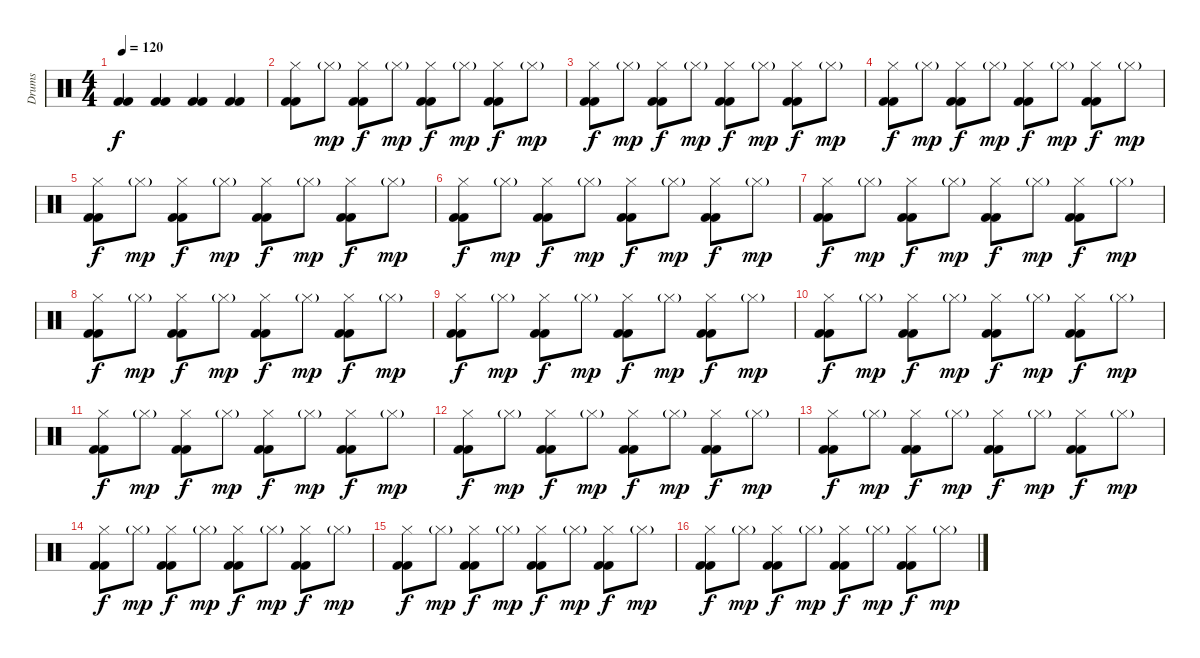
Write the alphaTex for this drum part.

\track ("Drums" "Drums") {instrument percussion}
\staff {score}
\articulation defaults
\ts (4 4)
\tempo 120
\clef neutral
\ks c
("Kick (hit) 2" "Kick (hit) 2").4{dy f} ("Kick (hit) 2" "Kick (hit) 2").4 ("Kick (hit) 2" "Kick (hit) 2").4 ("Kick (hit) 2" "Kick (hit) 2").4 |
("Hi-Hat (closed)" "Kick (hit) 2" "Kick (hit) 2").8 "Hi-Hat (closed)"{g}.8{dy mp} ("Hi-Hat (closed)" "Kick (hit) 2" "Kick (hit) 2").8{dy f} "Hi-Hat (closed)"{g}.8{dy mp} ("Hi-Hat (closed)" "Kick (hit) 2" "Kick (hit) 2").8{dy f} "Hi-Hat (closed)"{g}.8{dy mp} ("Hi-Hat (closed)" "Kick (hit) 2" "Kick (hit) 2").8{dy f} "Hi-Hat (closed)"{g}.8{dy mp} |
("Hi-Hat (closed)" "Kick (hit) 2" "Kick (hit) 2").8{dy f} "Hi-Hat (closed)"{g}.8{dy mp} ("Hi-Hat (closed)" "Kick (hit) 2" "Kick (hit) 2").8{dy f} "Hi-Hat (closed)"{g}.8{dy mp} ("Hi-Hat (closed)" "Kick (hit) 2" "Kick (hit) 2").8{dy f} "Hi-Hat (closed)"{g}.8{dy mp} ("Hi-Hat (closed)" "Kick (hit) 2" "Kick (hit) 2").8{dy f} "Hi-Hat (closed)"{g}.8{dy mp} |
("Hi-Hat (closed)" "Kick (hit) 2" "Kick (hit) 2").8{dy f} "Hi-Hat (closed)"{g}.8{dy mp} ("Hi-Hat (closed)" "Kick (hit) 2" "Kick (hit) 2").8{dy f} "Hi-Hat (closed)"{g}.8{dy mp} ("Hi-Hat (closed)" "Kick (hit) 2" "Kick (hit) 2").8{dy f} "Hi-Hat (closed)"{g}.8{dy mp} ("Hi-Hat (closed)" "Kick (hit) 2" "Kick (hit) 2").8{dy f} "Hi-Hat (closed)"{g}.8{dy mp} |
("Hi-Hat (closed)" "Kick (hit) 2" "Kick (hit) 2").8{dy f} "Hi-Hat (closed)"{g}.8{dy mp} ("Hi-Hat (closed)" "Kick (hit) 2" "Kick (hit) 2").8{dy f} "Hi-Hat (closed)"{g}.8{dy mp} ("Hi-Hat (closed)" "Kick (hit) 2" "Kick (hit) 2").8{dy f} "Hi-Hat (closed)"{g}.8{dy mp} ("Hi-Hat (closed)" "Kick (hit) 2" "Kick (hit) 2").8{dy f} "Hi-Hat (closed)"{g}.8{dy mp} |
("Hi-Hat (closed)" "Kick (hit) 2" "Kick (hit) 2").8{dy f} "Hi-Hat (closed)"{g}.8{dy mp} ("Hi-Hat (closed)" "Kick (hit) 2" "Kick (hit) 2").8{dy f} "Hi-Hat (closed)"{g}.8{dy mp} ("Hi-Hat (closed)" "Kick (hit) 2" "Kick (hit) 2").8{dy f} "Hi-Hat (closed)"{g}.8{dy mp} ("Hi-Hat (closed)" "Kick (hit) 2" "Kick (hit) 2").8{dy f} "Hi-Hat (closed)"{g}.8{dy mp} |
("Hi-Hat (closed)" "Kick (hit) 2" "Kick (hit) 2").8{dy f} "Hi-Hat (closed)"{g}.8{dy mp} ("Hi-Hat (closed)" "Kick (hit) 2" "Kick (hit) 2").8{dy f} "Hi-Hat (closed)"{g}.8{dy mp} ("Hi-Hat (closed)" "Kick (hit) 2" "Kick (hit) 2").8{dy f} "Hi-Hat (closed)"{g}.8{dy mp} ("Hi-Hat (closed)" "Kick (hit) 2" "Kick (hit) 2").8{dy f} "Hi-Hat (closed)"{g}.8{dy mp} |
("Hi-Hat (closed)" "Kick (hit) 2" "Kick (hit) 2").8{dy f} "Hi-Hat (closed)"{g}.8{dy mp} ("Hi-Hat (closed)" "Kick (hit) 2" "Kick (hit) 2").8{dy f} "Hi-Hat (closed)"{g}.8{dy mp} ("Hi-Hat (closed)" "Kick (hit) 2" "Kick (hit) 2").8{dy f} "Hi-Hat (closed)"{g}.8{dy mp} ("Hi-Hat (closed)" "Kick (hit) 2" "Kick (hit) 2").8{dy f} "Hi-Hat (closed)"{g}.8{dy mp} |
("Hi-Hat (closed)" "Kick (hit) 2" "Kick (hit) 2").8{dy f} "Hi-Hat (closed)"{g}.8{dy mp} ("Hi-Hat (closed)" "Kick (hit) 2" "Kick (hit) 2").8{dy f} "Hi-Hat (closed)"{g}.8{dy mp} ("Hi-Hat (closed)" "Kick (hit) 2" "Kick (hit) 2").8{dy f} "Hi-Hat (closed)"{g}.8{dy mp} ("Hi-Hat (closed)" "Kick (hit) 2" "Kick (hit) 2").8{dy f} "Hi-Hat (closed)"{g}.8{dy mp} |
("Hi-Hat (closed)" "Kick (hit) 2" "Kick (hit) 2").8{dy f} "Hi-Hat (closed)"{g}.8{dy mp} ("Hi-Hat (closed)" "Kick (hit) 2" "Kick (hit) 2").8{dy f} "Hi-Hat (closed)"{g}.8{dy mp} ("Hi-Hat (closed)" "Kick (hit) 2" "Kick (hit) 2").8{dy f} "Hi-Hat (closed)"{g}.8{dy mp} ("Hi-Hat (closed)" "Kick (hit) 2" "Kick (hit) 2").8{dy f} "Hi-Hat (closed)"{g}.8{dy mp} |
("Hi-Hat (closed)" "Kick (hit) 2" "Kick (hit) 2").8{dy f} "Hi-Hat (closed)"{g}.8{dy mp} ("Hi-Hat (closed)" "Kick (hit) 2" "Kick (hit) 2").8{dy f} "Hi-Hat (closed)"{g}.8{dy mp} ("Hi-Hat (closed)" "Kick (hit) 2" "Kick (hit) 2").8{dy f} "Hi-Hat (closed)"{g}.8{dy mp} ("Hi-Hat (closed)" "Kick (hit) 2" "Kick (hit) 2").8{dy f} "Hi-Hat (closed)"{g}.8{dy mp} |
("Hi-Hat (closed)" "Kick (hit) 2" "Kick (hit) 2").8{dy f} "Hi-Hat (closed)"{g}.8{dy mp} ("Hi-Hat (closed)" "Kick (hit) 2" "Kick (hit) 2").8{dy f} "Hi-Hat (closed)"{g}.8{dy mp} ("Hi-Hat (closed)" "Kick (hit) 2" "Kick (hit) 2").8{dy f} "Hi-Hat (closed)"{g}.8{dy mp} ("Hi-Hat (closed)" "Kick (hit) 2" "Kick (hit) 2").8{dy f} "Hi-Hat (closed)"{g}.8{dy mp} |
("Hi-Hat (closed)" "Kick (hit) 2" "Kick (hit) 2").8{dy f} "Hi-Hat (closed)"{g}.8{dy mp} ("Hi-Hat (closed)" "Kick (hit) 2" "Kick (hit) 2").8{dy f} "Hi-Hat (closed)"{g}.8{dy mp} ("Hi-Hat (closed)" "Kick (hit) 2" "Kick (hit) 2").8{dy f} "Hi-Hat (closed)"{g}.8{dy mp} ("Hi-Hat (closed)" "Kick (hit) 2" "Kick (hit) 2").8{dy f} "Hi-Hat (closed)"{g}.8{dy mp} |
("Hi-Hat (closed)" "Kick (hit) 2" "Kick (hit) 2").8{dy f} "Hi-Hat (closed)"{g}.8{dy mp} ("Hi-Hat (closed)" "Kick (hit) 2" "Kick (hit) 2").8{dy f} "Hi-Hat (closed)"{g}.8{dy mp} ("Hi-Hat (closed)" "Kick (hit) 2" "Kick (hit) 2").8{dy f} "Hi-Hat (closed)"{g}.8{dy mp} ("Hi-Hat (closed)" "Kick (hit) 2" "Kick (hit) 2").8{dy f} "Hi-Hat (closed)"{g}.8{dy mp} |
("Hi-Hat (closed)" "Kick (hit) 2" "Kick (hit) 2").8{dy f} "Hi-Hat (closed)"{g}.8{dy mp} ("Hi-Hat (closed)" "Kick (hit) 2" "Kick (hit) 2").8{dy f} "Hi-Hat (closed)"{g}.8{dy mp} ("Hi-Hat (closed)" "Kick (hit) 2" "Kick (hit) 2").8{dy f} "Hi-Hat (closed)"{g}.8{dy mp} ("Hi-Hat (closed)" "Kick (hit) 2" "Kick (hit) 2").8{dy f} "Hi-Hat (closed)"{g}.8{dy mp} |
("Hi-Hat (closed)" "Kick (hit) 2" "Kick (hit) 2").8{dy f} "Hi-Hat (closed)"{g}.8{dy mp} ("Hi-Hat (closed)" "Kick (hit) 2" "Kick (hit) 2").8{dy f} "Hi-Hat (closed)"{g}.8{dy mp} ("Hi-Hat (closed)" "Kick (hit) 2" "Kick (hit) 2").8{dy f} "Hi-Hat (closed)"{g}.8{dy mp} ("Hi-Hat (closed)" "Kick (hit) 2" "Kick (hit) 2").8{dy f} "Hi-Hat (closed)"{g}.8{dy mp}
